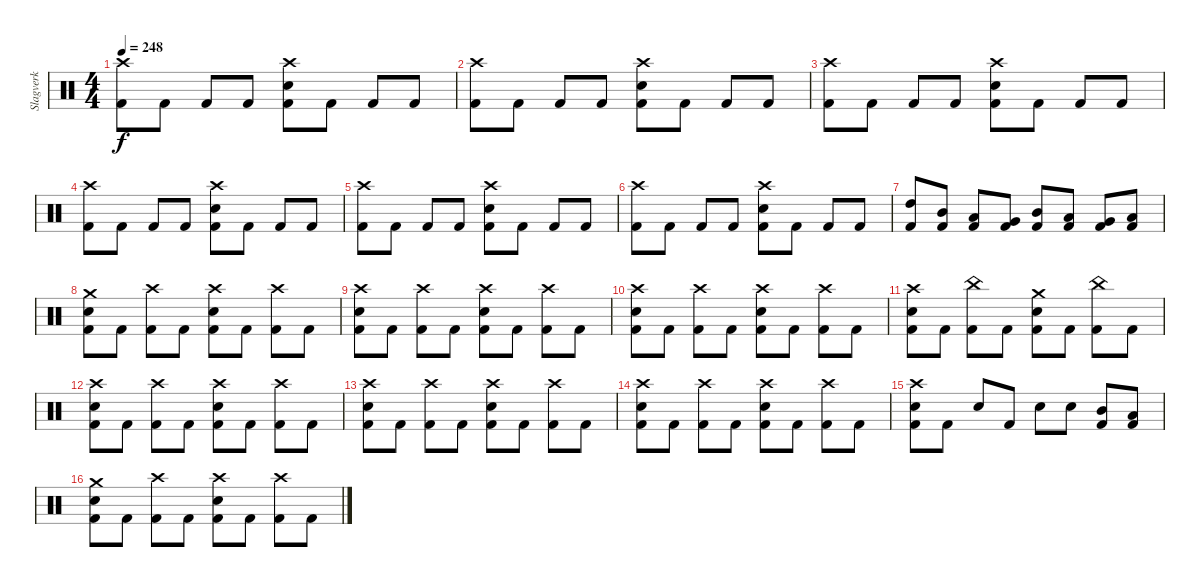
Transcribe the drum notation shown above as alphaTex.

\track ("Slagverk" "Slagverk") {instrument percussion}
\staff {score}
\articulation defaults
\ts (4 4)
\tempo 248
\clef neutral
\ks c
("Crash high (hit)" "Kick (hit) 2").8{dy f} "Kick (hit) 2".8 "Kick (hit) 2".8 "Kick (hit) 2".8 ("Crash high (hit)" "Snare (hit) 2" "Kick (hit) 2").8 "Kick (hit) 2".8 "Kick (hit) 2".8 "Kick (hit) 2".8 |
("Crash high (hit)" "Kick (hit) 2").8 "Kick (hit) 2".8 "Kick (hit) 2".8 "Kick (hit) 2".8 ("Crash high (hit)" "Snare (hit) 2" "Kick (hit) 2").8 "Kick (hit) 2".8 "Kick (hit) 2".8 "Kick (hit) 2".8 |
("Crash high (hit)" "Kick (hit) 2").8 "Kick (hit) 2".8 "Kick (hit) 2".8 "Kick (hit) 2".8 ("Crash high (hit)" "Snare (hit) 2" "Kick (hit) 2").8 "Kick (hit) 2".8 "Kick (hit) 2".8 "Kick (hit) 2".8 |
("Crash high (hit)" "Kick (hit) 2").8 "Kick (hit) 2".8 "Kick (hit) 2".8 "Kick (hit) 2".8 ("Crash high (hit)" "Snare (hit) 2" "Kick (hit) 2").8 "Kick (hit) 2".8 "Kick (hit) 2".8 "Kick (hit) 2".8 |
("Crash high (hit)" "Kick (hit) 2").8 "Kick (hit) 2".8 "Kick (hit) 2".8 "Kick (hit) 2".8 ("Crash high (hit)" "Snare (hit) 2" "Kick (hit) 2").8 "Kick (hit) 2".8 "Kick (hit) 2".8 "Kick (hit) 2".8 |
("Crash high (hit)" "Kick (hit) 2").8 "Kick (hit) 2".8 "Kick (hit) 2".8 "Kick (hit) 2".8 ("Crash high (hit)" "Snare (hit) 2" "Kick (hit) 2").8 "Kick (hit) 2".8 "Kick (hit) 2".8 "Kick (hit) 2".8 |
("High Tom (hit)" "Kick (hit) 2").8 ("Mid Tom (hit)" "Kick (hit) 2").8 ("Low Tom (hit)" "Kick (hit) 2").8 ("Very Low Tom (hit)" "Kick (hit) 2").8 ("Mid Tom (hit)" "Kick (hit) 2").8 ("Low Tom (hit)" "Kick (hit) 2").8 ("Very Low Tom (hit)" "Kick (hit) 2").8 ("Low Floor Tom (hit)" "Kick (hit) 2").8 |
("Crash medium (hit)" "Snare (hit) 2" "Kick (hit) 2").8 "Kick (hit) 2".8 ("Crash high (hit)" "Kick (hit) 2").8 "Kick (hit) 2".8 ("Crash high (hit)" "Snare (hit) 2" "Kick (hit) 2").8 "Kick (hit) 2".8 ("Crash high (hit)" "Kick (hit) 2").8 "Kick (hit) 2".8 |
("Crash high (hit)" "Snare (hit) 2" "Kick (hit) 2").8 "Kick (hit) 2".8 ("Crash high (hit)" "Kick (hit) 2").8 "Kick (hit) 2".8 ("Crash high (hit)" "Snare (hit) 2" "Kick (hit) 2").8 "Kick (hit) 2".8 ("Crash high (hit)" "Kick (hit) 2").8 "Kick (hit) 2".8 |
("Crash high (hit)" "Snare (hit) 2" "Kick (hit) 2").8 "Kick (hit) 2".8 ("Crash high (hit)" "Kick (hit) 2").8 "Kick (hit) 2".8 ("Crash high (hit)" "Snare (hit) 2" "Kick (hit) 2").8 "Kick (hit) 2".8 ("Crash high (hit)" "Kick (hit) 2").8 "Kick (hit) 2".8 |
("Crash high (hit)" "Snare (hit) 2" "Kick (hit) 2").8 "Kick (hit) 2".8 ("China (hit)" "Kick (hit) 2").8 "Kick (hit) 2".8 ("Crash medium (hit)" "Snare (hit) 2" "Kick (hit) 2").8 "Kick (hit) 2".8 ("China (hit)" "Kick (hit) 2").8 "Kick (hit) 2".8 |
("Crash high (hit)" "Snare (hit) 2" "Kick (hit) 2").8 "Kick (hit) 2".8 ("Crash high (hit)" "Kick (hit) 2").8 "Kick (hit) 2".8 ("Crash high (hit)" "Snare (hit) 2" "Kick (hit) 2").8 "Kick (hit) 2".8 ("Crash high (hit)" "Kick (hit) 2").8 "Kick (hit) 2".8 |
("Crash high (hit)" "Snare (hit) 2" "Kick (hit) 2").8 "Kick (hit) 2".8 ("Crash high (hit)" "Kick (hit) 2").8 "Kick (hit) 2".8 ("Crash high (hit)" "Snare (hit) 2" "Kick (hit) 2").8 "Kick (hit) 2".8 ("Crash high (hit)" "Kick (hit) 2").8 "Kick (hit) 2".8 |
("Crash high (hit)" "Snare (hit) 2" "Kick (hit) 2").8 "Kick (hit) 2".8 ("Crash high (hit)" "Kick (hit) 2").8 "Kick (hit) 2".8 ("Crash high (hit)" "Snare (hit) 2" "Kick (hit) 2").8 "Kick (hit) 2".8 ("Crash high (hit)" "Kick (hit) 2").8 "Kick (hit) 2".8 |
("Crash high (hit)" "Snare (hit) 2" "Kick (hit) 2").8 "Kick (hit) 2".8 "Snare (hit) 2".8 "Kick (hit) 2".8 "Snare (hit) 2".8 "Snare (hit) 2".8 ("Mid Tom (hit)" "Kick (hit) 2").8 ("Low Tom (hit)" "Kick (hit) 2").8 |
("Crash medium (hit)" "Snare (hit) 2" "Kick (hit) 2").8 "Kick (hit) 2".8 ("Crash high (hit)" "Kick (hit) 2").8 "Kick (hit) 2".8 ("Crash high (hit)" "Snare (hit) 2" "Kick (hit) 2").8 "Kick (hit) 2".8 ("Crash high (hit)" "Kick (hit) 2").8 "Kick (hit) 2".8
